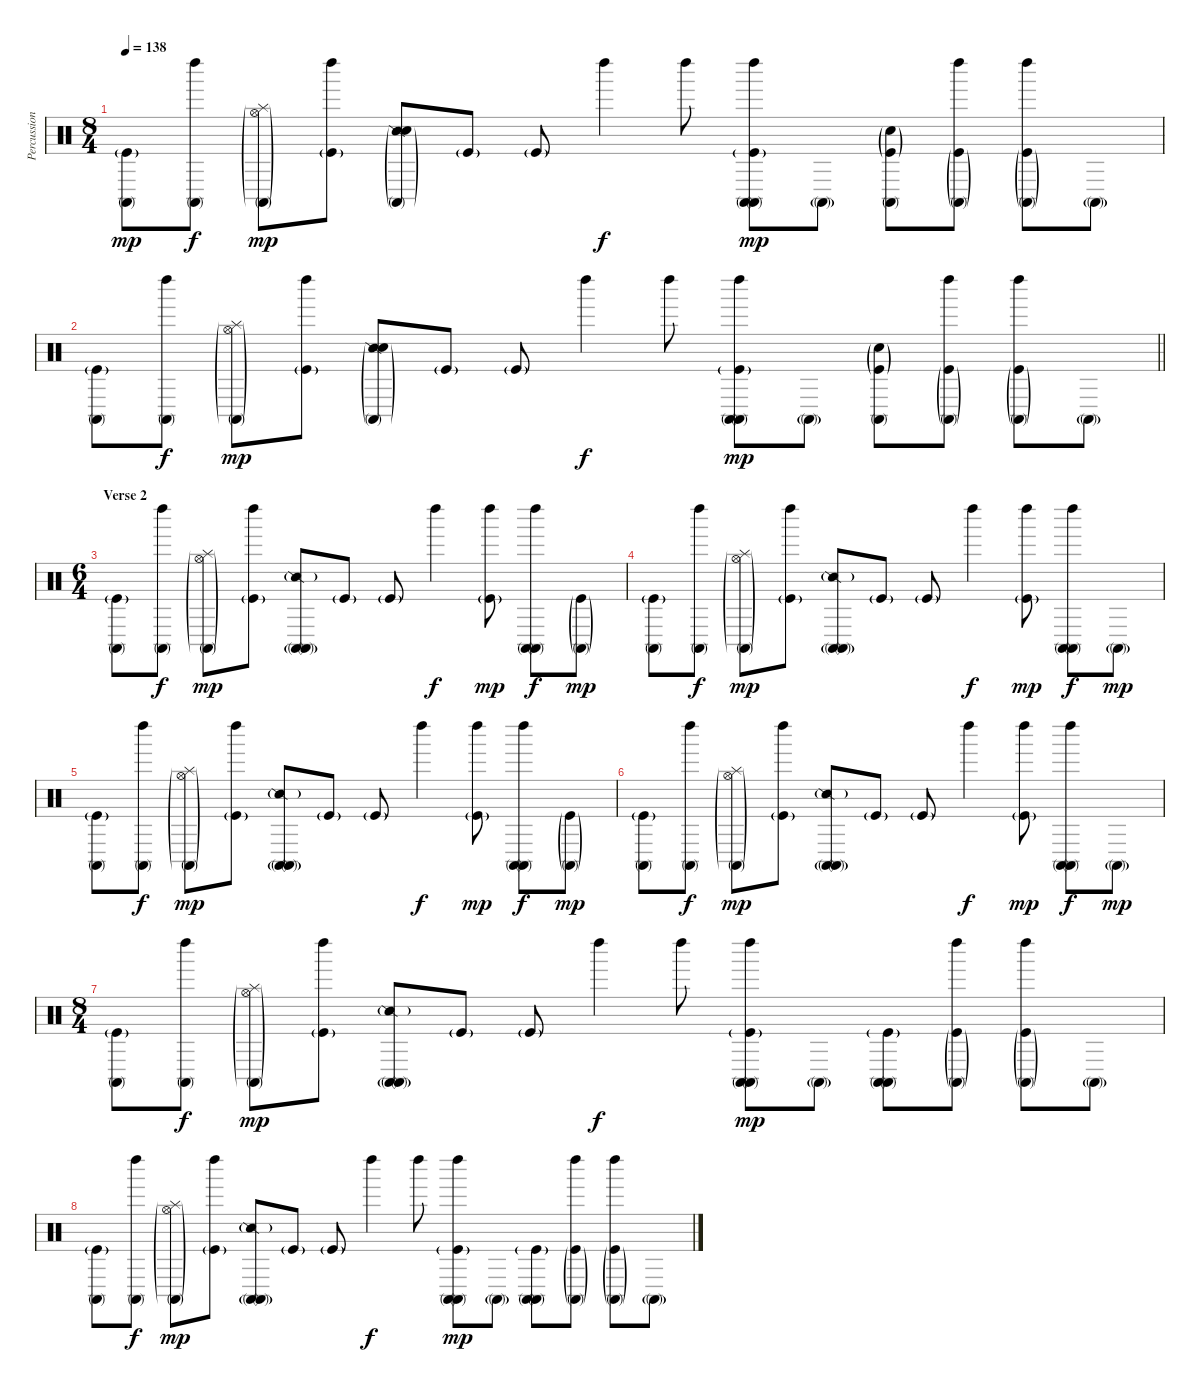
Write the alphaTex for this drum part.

\track ("Percussions" "Percussion") {instrument percussion}
\staff {score}
\articulation defaults
\ts (8 4)
\tempo 138
\clef neutral
\ks c
("Conga high (mute)" "Kick (hit)"{g}).8{dy mp} ("Conga high (mute)" "Left Maraca (hit)").8{dy f} ("Splash (hit)"{g} "Hi-Hat (open)"{g} "Conga high (mute)"{g}).8{dy mp} ("Kick (hit)"{g} "Left Maraca (hit)").8 ("Snare (side stick) 2"{g} "Electric Snare (hit)"{g} "Conga high (mute)"{g}).8 "Kick (hit)"{g}.8 "Kick (hit)"{g}.8 "Left Maraca (hit)".4{dy f} "Left Maraca (hit)".8 ("Conga high (mute)" "Conga high (mute)" "Kick (hit)"{g} "Left Maraca (hit)").8{dy mp} "Conga high (mute)"{g}.8 ("Electric Snare (hit)"{g} "Conga high (mute)" "Kick (hit)"{g}).8 ("Conga high (mute)"{g} "Kick (hit)"{g} "Left Maraca (hit)").8 ("Conga high (mute)"{g} "Kick (hit)"{g} "Left Maraca (hit)").8 "Conga high (mute)"{g}.8 |
\barLineRight lightlight
("Conga high (mute)" "Kick (hit)"{g}).8 ("Conga high (mute)" "Left Maraca (hit)").8{dy f} ("Splash (hit)"{g} "Hi-Hat (open)"{g} "Conga high (mute)"{g}).8{dy mp} ("Kick (hit)"{g} "Left Maraca (hit)").8 ("Snare (side stick) 2"{g} "Electric Snare (hit)"{g} "Conga high (mute)"{g}).8 "Kick (hit)"{g}.8 "Kick (hit)"{g}.8 "Left Maraca (hit)".4{dy f} "Left Maraca (hit)".8 ("Conga high (mute)" "Conga high (mute)" "Kick (hit)"{g} "Left Maraca (hit)").8{dy mp} "Conga high (mute)"{g}.8 ("Electric Snare (hit)"{g} "Conga high (mute)" "Kick (hit)"{g}).8 ("Conga high (mute)"{g} "Kick (hit)"{g} "Left Maraca (hit)").8 ("Conga high (mute)"{g} "Kick (hit)"{g} "Left Maraca (hit)").8 "Conga high (mute)"{g}.8 |
\ts (6 4)
\section ("" "Verse 2")
("Conga high (mute)" "Kick (hit)"{g}).8 ("Conga high (mute)" "Left Maraca (hit)").8{dy f} ("Splash (hit)"{g} "Hi-Hat (open)"{g} "Conga high (mute)"{g}).8{dy mp} ("Kick (hit)"{g} "Left Maraca (hit)").8 ("Snare (side stick) 2"{g} "Conga high (mute)" "Conga high (mute)"{g}).8 "Kick (hit)"{g}.8 "Kick (hit)"{g}.8 "Left Maraca (hit)".4{dy f} ("Kick (hit)"{g} "Left Maraca (hit)").8{dy mp} ("Conga high (mute)" "Conga high (mute)" "Left Maraca (hit)").8{dy f} ("Conga high (mute)"{g} "Kick (hit)"{g}).8{dy mp} |
("Conga high (mute)" "Kick (hit)"{g}).8 ("Conga high (mute)" "Left Maraca (hit)").8{dy f} ("Splash (hit)"{g} "Hi-Hat (open)"{g} "Conga high (mute)"{g}).8{dy mp} ("Kick (hit)"{g} "Left Maraca (hit)").8 ("Snare (side stick) 2"{g} "Conga high (mute)" "Conga high (mute)"{g}).8 "Kick (hit)"{g}.8 "Kick (hit)"{g}.8 "Left Maraca (hit)".4{dy f} ("Kick (hit)"{g} "Left Maraca (hit)").8{dy mp} ("Conga high (mute)" "Conga high (mute)" "Left Maraca (hit)").8{dy f} "Conga high (mute)"{g}.8{dy mp} |
("Conga high (mute)" "Kick (hit)"{g}).8 ("Conga high (mute)" "Left Maraca (hit)").8{dy f} ("Splash (hit)"{g} "Hi-Hat (open)"{g} "Conga high (mute)"{g}).8{dy mp} ("Kick (hit)"{g} "Left Maraca (hit)").8 ("Snare (side stick) 2"{g} "Conga high (mute)" "Conga high (mute)"{g}).8 "Kick (hit)"{g}.8 "Kick (hit)"{g}.8 "Left Maraca (hit)".4{dy f} ("Kick (hit)"{g} "Left Maraca (hit)").8{dy mp} ("Conga high (mute)" "Conga high (mute)" "Left Maraca (hit)").8{dy f} ("Conga high (mute)"{g} "Kick (hit)"{g}).8{dy mp} |
("Conga high (mute)" "Kick (hit)"{g}).8 ("Conga high (mute)" "Left Maraca (hit)").8{dy f} ("Splash (hit)"{g} "Hi-Hat (open)"{g} "Conga high (mute)"{g}).8{dy mp} ("Kick (hit)"{g} "Left Maraca (hit)").8 ("Snare (side stick) 2"{g} "Conga high (mute)" "Conga high (mute)"{g}).8 "Kick (hit)"{g}.8 "Kick (hit)"{g}.8 "Left Maraca (hit)".4{dy f} ("Kick (hit)"{g} "Left Maraca (hit)").8{dy mp} ("Conga high (mute)" "Conga high (mute)" "Left Maraca (hit)").8{dy f} "Conga high (mute)"{g}.8{dy mp} |
\ts (8 4)
("Conga high (mute)" "Kick (hit)"{g}).8 ("Conga high (mute)" "Left Maraca (hit)").8{dy f} ("Splash (hit)"{g} "Hi-Hat (open)"{g} "Conga high (mute)"{g}).8{dy mp} ("Kick (hit)"{g} "Left Maraca (hit)").8 ("Snare (side stick) 2"{g} "Conga high (mute)" "Conga high (mute)"{g}).8 "Kick (hit)"{g}.8 "Kick (hit)"{g}.8 "Left Maraca (hit)".4{dy f} "Left Maraca (hit)".8 ("Conga high (mute)" "Conga high (mute)" "Kick (hit)"{g} "Left Maraca (hit)").8{dy mp} "Conga high (mute)"{g}.8 ("Conga high (mute)" "Conga high (mute)" "Kick (hit)"{g}).8 ("Conga high (mute)"{g} "Kick (hit)"{g} "Left Maraca (hit)").8 ("Conga high (mute)"{g} "Kick (hit)"{g} "Left Maraca (hit)").8 "Conga high (mute)"{g}.8 |
("Conga high (mute)" "Kick (hit)"{g}).8 ("Conga high (mute)" "Left Maraca (hit)").8{dy f} ("Splash (hit)"{g} "Hi-Hat (open)"{g} "Conga high (mute)"{g}).8{dy mp} ("Kick (hit)"{g} "Left Maraca (hit)").8 ("Snare (side stick) 2"{g} "Conga high (mute)" "Conga high (mute)"{g}).8 "Kick (hit)"{g}.8 "Kick (hit)"{g}.8 "Left Maraca (hit)".4{dy f} "Left Maraca (hit)".8 ("Conga high (mute)" "Conga high (mute)" "Kick (hit)"{g} "Left Maraca (hit)").8{dy mp} "Conga high (mute)"{g}.8 ("Conga high (mute)" "Conga high (mute)" "Kick (hit)"{g}).8 ("Conga high (mute)"{g} "Kick (hit)"{g} "Left Maraca (hit)").8 ("Conga high (mute)"{g} "Kick (hit)"{g} "Left Maraca (hit)").8 "Conga high (mute)"{g}.8
